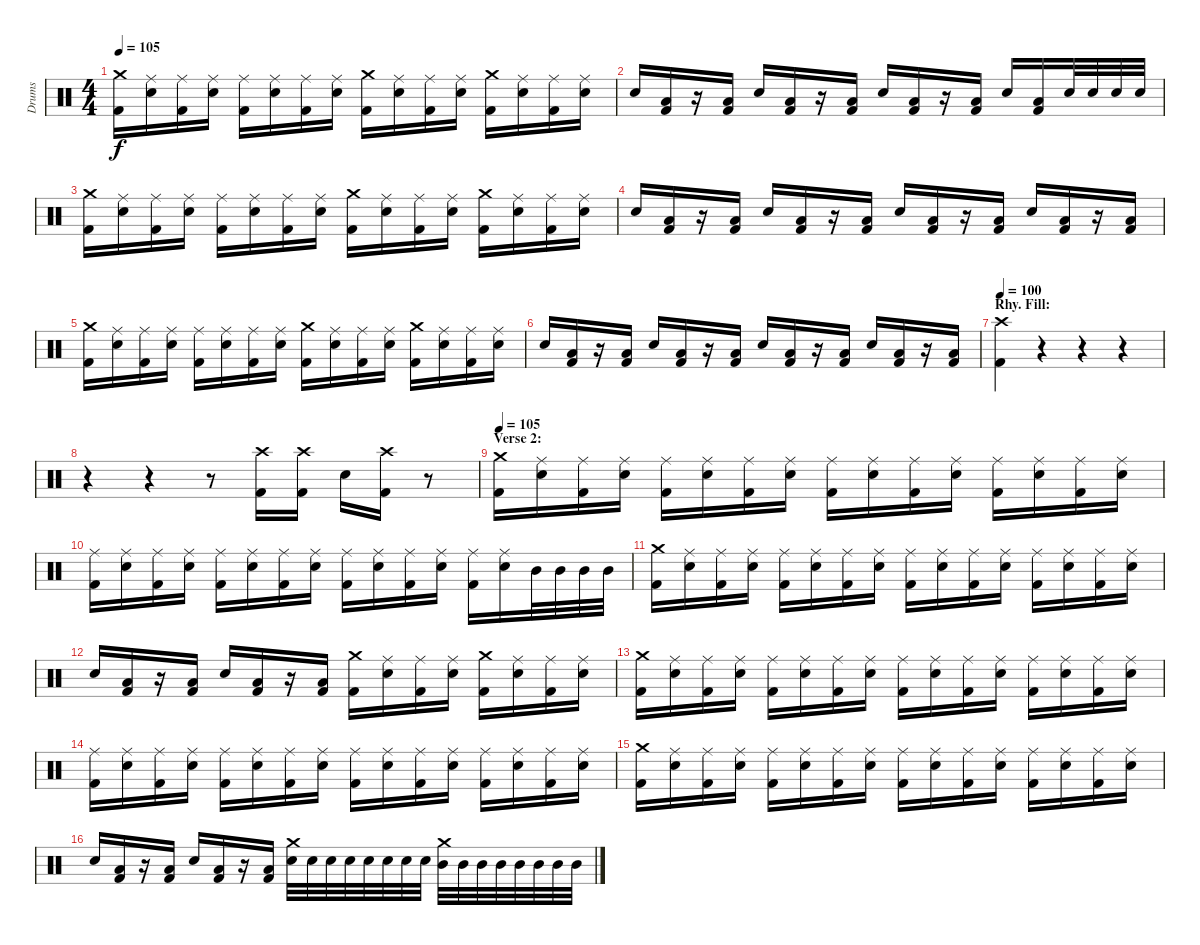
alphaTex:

\track ("Drums" "Drums") {instrument percussion}
\staff {score}
\articulation defaults
\ts (4 4)
\tempo 105
\clef neutral
\ks c
("Crash medium (hit)" "Kick (hit) 2").16{dy f} ("Ride (middle)" "Electric Snare (hit)").16 ("Ride (middle)" "Kick (hit) 2").16 ("Ride (middle)" "Electric Snare (hit)").16 ("Ride (middle)" "Kick (hit) 2").16 ("Ride (middle)" "Electric Snare (hit)").16 ("Ride (middle)" "Kick (hit) 2").16 ("Ride (middle)" "Electric Snare (hit)").16 ("Crash medium (hit)" "Kick (hit) 2").16 ("Ride (middle)" "Electric Snare (hit)").16 ("Ride (middle)" "Kick (hit) 2").16 ("Ride (middle)" "Electric Snare (hit)").16 ("Crash medium (hit)" "Kick (hit) 2").16 ("Ride (middle)" "Electric Snare (hit)").16 ("Ride (middle)" "Kick (hit) 2").16 ("Ride (middle)" "Electric Snare (hit)").16 |
"Electric Snare (hit)".16 ("Low Floor Tom (hit)" "Kick (hit) 2").16 r.16 ("Low Floor Tom (hit)" "Kick (hit) 2").16 "Electric Snare (hit)".16 ("Low Floor Tom (hit)" "Kick (hit) 2").16 r.16 ("Low Floor Tom (hit)" "Kick (hit) 2").16 "Electric Snare (hit)".16 ("Low Floor Tom (hit)" "Kick (hit) 2").16 r.16 ("Low Floor Tom (hit)" "Kick (hit) 2").16 "Electric Snare (hit)".16 ("Low Floor Tom (hit)" "Kick (hit) 2").16 "Electric Snare (hit)".32 "Electric Snare (hit)".32 "Electric Snare (hit)".32 "Electric Snare (hit)".32 |
("Crash medium (hit)" "Kick (hit) 2").16 ("Ride (middle)" "Electric Snare (hit)").16 ("Ride (middle)" "Kick (hit) 2").16 ("Ride (middle)" "Electric Snare (hit)").16 ("Ride (middle)" "Kick (hit) 2").16 ("Ride (middle)" "Electric Snare (hit)").16 ("Ride (middle)" "Kick (hit) 2").16 ("Ride (middle)" "Electric Snare (hit)").16 ("Crash medium (hit)" "Kick (hit) 2").16 ("Ride (middle)" "Electric Snare (hit)").16 ("Ride (middle)" "Kick (hit) 2").16 ("Ride (middle)" "Electric Snare (hit)").16 ("Crash medium (hit)" "Kick (hit) 2").16 ("Ride (middle)" "Electric Snare (hit)").16 ("Ride (middle)" "Kick (hit) 2").16 ("Ride (middle)" "Electric Snare (hit)").16 |
"Electric Snare (hit)".16 ("Low Floor Tom (hit)" "Kick (hit) 2").16 r.16 ("Low Floor Tom (hit)" "Kick (hit) 2").16 "Electric Snare (hit)".16 ("Low Floor Tom (hit)" "Kick (hit) 2").16 r.16 ("Low Floor Tom (hit)" "Kick (hit) 2").16 "Electric Snare (hit)".16 ("Low Floor Tom (hit)" "Kick (hit) 2").16 r.16 ("Low Floor Tom (hit)" "Kick (hit) 2").16 "Electric Snare (hit)".16 ("Low Floor Tom (hit)" "Kick (hit) 2").16 r.16 ("Low Floor Tom (hit)" "Kick (hit) 2").16 |
("Crash medium (hit)" "Kick (hit) 2").16 ("Ride (middle)" "Electric Snare (hit)").16 ("Ride (middle)" "Kick (hit) 2").16 ("Ride (middle)" "Electric Snare (hit)").16 ("Ride (middle)" "Kick (hit) 2").16 ("Ride (middle)" "Electric Snare (hit)").16 ("Ride (middle)" "Kick (hit) 2").16 ("Ride (middle)" "Electric Snare (hit)").16 ("Crash medium (hit)" "Kick (hit) 2").16 ("Ride (middle)" "Electric Snare (hit)").16 ("Ride (middle)" "Kick (hit) 2").16 ("Ride (middle)" "Electric Snare (hit)").16 ("Crash medium (hit)" "Kick (hit) 2").16 ("Ride (middle)" "Electric Snare (hit)").16 ("Ride (middle)" "Kick (hit) 2").16 ("Ride (middle)" "Electric Snare (hit)").16 |
"Electric Snare (hit)".16 ("Low Floor Tom (hit)" "Kick (hit) 2").16 r.16 ("Low Floor Tom (hit)" "Kick (hit) 2").16 "Electric Snare (hit)".16 ("Low Floor Tom (hit)" "Kick (hit) 2").16 r.16 ("Low Floor Tom (hit)" "Kick (hit) 2").16 "Electric Snare (hit)".16 ("Low Floor Tom (hit)" "Kick (hit) 2").16 r.16 ("Low Floor Tom (hit)" "Kick (hit) 2").16 "Electric Snare (hit)".16 ("Low Floor Tom (hit)" "Kick (hit) 2").16 r.16 ("Low Floor Tom (hit)" "Kick (hit) 2").16 |
\section ("" "Rhy. Fill:")
\tempo 100
("Crash high (hit)" "Kick (hit) 2").4 r.4 r.4 r.4 |
r.4 r.4 r.8 ("Crash high (hit)" "Kick (hit) 2").16 ("Crash high (hit)" "Kick (hit) 2").16 "Electric Snare (hit)".16 ("Crash high (hit)" "Kick (hit) 2").16 r.8 |
\section ("" "Verse 2:")
\tempo 105
("Crash medium (hit)" "Kick (hit) 2").16 ("Ride (middle)" "Electric Snare (hit)").16 ("Ride (middle)" "Kick (hit) 2").16 ("Ride (middle)" "Electric Snare (hit)").16 ("Ride (middle)" "Kick (hit) 2").16 ("Ride (middle)" "Electric Snare (hit)").16 ("Ride (middle)" "Kick (hit) 2").16 ("Ride (middle)" "Electric Snare (hit)").16 ("Ride (middle)" "Kick (hit) 2").16 ("Ride (middle)" "Electric Snare (hit)").16 ("Ride (middle)" "Kick (hit) 2").16 ("Ride (middle)" "Electric Snare (hit)").16 ("Ride (middle)" "Kick (hit) 2").16 ("Ride (middle)" "Electric Snare (hit)").16 ("Ride (middle)" "Kick (hit) 2").16 ("Ride (middle)" "Electric Snare (hit)").16 |
("Ride (middle)" "Kick (hit) 2").16 ("Ride (middle)" "Electric Snare (hit)").16 ("Ride (middle)" "Kick (hit) 2").16 ("Ride (middle)" "Electric Snare (hit)").16 ("Ride (middle)" "Kick (hit) 2").16 ("Ride (middle)" "Electric Snare (hit)").16 ("Ride (middle)" "Kick (hit) 2").16 ("Ride (middle)" "Electric Snare (hit)").16 ("Ride (middle)" "Kick (hit) 2").16 ("Ride (middle)" "Electric Snare (hit)").16 ("Ride (middle)" "Kick (hit) 2").16 ("Ride (middle)" "Electric Snare (hit)").16 ("Ride (middle)" "Kick (hit) 2").16 ("Ride (middle)" "Electric Snare (hit)").16 "Mid Tom (hit)".32 "Mid Tom (hit)".32 "Mid Tom (hit)".32 "Mid Tom (hit)".32 |
("Crash medium (hit)" "Kick (hit) 2").16 ("Ride (middle)" "Electric Snare (hit)").16 ("Ride (middle)" "Kick (hit) 2").16 ("Ride (middle)" "Electric Snare (hit)").16 ("Ride (middle)" "Kick (hit) 2").16 ("Ride (middle)" "Electric Snare (hit)").16 ("Ride (middle)" "Kick (hit) 2").16 ("Ride (middle)" "Electric Snare (hit)").16 ("Ride (middle)" "Kick (hit) 2").16 ("Ride (middle)" "Electric Snare (hit)").16 ("Ride (middle)" "Kick (hit) 2").16 ("Ride (middle)" "Electric Snare (hit)").16 ("Ride (middle)" "Kick (hit) 2").16 ("Ride (middle)" "Electric Snare (hit)").16 ("Ride (middle)" "Kick (hit) 2").16 ("Ride (middle)" "Electric Snare (hit)").16 |
"Electric Snare (hit)".16 ("Low Floor Tom (hit)" "Kick (hit) 2").16 r.16 ("Low Floor Tom (hit)" "Kick (hit) 2").16 "Electric Snare (hit)".16 ("Low Floor Tom (hit)" "Kick (hit) 2").16 r.16 ("Low Floor Tom (hit)" "Kick (hit) 2").16 ("Crash medium (hit)" "Kick (hit) 2").16 ("Ride (middle)" "Electric Snare (hit)").16 ("Ride (middle)" "Kick (hit) 2").16 ("Ride (middle)" "Electric Snare (hit)").16 ("Crash medium (hit)" "Kick (hit) 2").16 ("Ride (middle)" "Electric Snare (hit)").16 ("Ride (middle)" "Kick (hit) 2").16 ("Ride (middle)" "Electric Snare (hit)").16 |
("Crash medium (hit)" "Kick (hit) 2").16 ("Ride (middle)" "Electric Snare (hit)").16 ("Ride (middle)" "Kick (hit) 2").16 ("Ride (middle)" "Electric Snare (hit)").16 ("Ride (middle)" "Kick (hit) 2").16 ("Ride (middle)" "Electric Snare (hit)").16 ("Ride (middle)" "Kick (hit) 2").16 ("Ride (middle)" "Electric Snare (hit)").16 ("Ride (middle)" "Kick (hit) 2").16 ("Ride (middle)" "Electric Snare (hit)").16 ("Ride (middle)" "Kick (hit) 2").16 ("Ride (middle)" "Electric Snare (hit)").16 ("Ride (middle)" "Kick (hit) 2").16 ("Ride (middle)" "Electric Snare (hit)").16 ("Ride (middle)" "Kick (hit) 2").16 ("Ride (middle)" "Electric Snare (hit)").16 |
("Ride (middle)" "Kick (hit) 2").16 ("Ride (middle)" "Electric Snare (hit)").16 ("Ride (middle)" "Kick (hit) 2").16 ("Ride (middle)" "Electric Snare (hit)").16 ("Ride (middle)" "Kick (hit) 2").16 ("Ride (middle)" "Electric Snare (hit)").16 ("Ride (middle)" "Kick (hit) 2").16 ("Ride (middle)" "Electric Snare (hit)").16 ("Ride (middle)" "Kick (hit) 2").16 ("Ride (middle)" "Electric Snare (hit)").16 ("Ride (middle)" "Kick (hit) 2").16 ("Ride (middle)" "Electric Snare (hit)").16 ("Ride (middle)" "Kick (hit) 2").16 ("Ride (middle)" "Electric Snare (hit)").16 ("Ride (middle)" "Kick (hit) 2").16 ("Ride (middle)" "Electric Snare (hit)").16 |
("Crash medium (hit)" "Kick (hit) 2").16 ("Ride (middle)" "Electric Snare (hit)").16 ("Ride (middle)" "Kick (hit) 2").16 ("Ride (middle)" "Electric Snare (hit)").16 ("Ride (middle)" "Kick (hit) 2").16 ("Ride (middle)" "Electric Snare (hit)").16 ("Ride (middle)" "Kick (hit) 2").16 ("Ride (middle)" "Electric Snare (hit)").16 ("Ride (middle)" "Kick (hit) 2").16 ("Ride (middle)" "Electric Snare (hit)").16 ("Ride (middle)" "Kick (hit) 2").16 ("Ride (middle)" "Electric Snare (hit)").16 ("Ride (middle)" "Kick (hit) 2").16 ("Ride (middle)" "Electric Snare (hit)").16 ("Ride (middle)" "Kick (hit) 2").16 ("Ride (middle)" "Electric Snare (hit)").16 |
"Electric Snare (hit)".16 ("Low Floor Tom (hit)" "Kick (hit) 2").16 r.16 ("Low Floor Tom (hit)" "Kick (hit) 2").16 "Electric Snare (hit)".16 ("Low Floor Tom (hit)" "Kick (hit) 2").16 r.16 ("Low Floor Tom (hit)" "Kick (hit) 2").16 ("Crash medium (hit)" "Electric Snare (hit)").32 "Electric Snare (hit)".32 "Electric Snare (hit)".32 "Electric Snare (hit)".32 "Electric Snare (hit)".32 "Electric Snare (hit)".32 "Electric Snare (hit)".32 "Electric Snare (hit)".32 ("Crash medium (hit)" "Mid Tom (hit)").32 "Mid Tom (hit)".32 "Mid Tom (hit)".32 "Mid Tom (hit)".32 "Mid Tom (hit)".32 "Mid Tom (hit)".32 "Mid Tom (hit)".32 "Mid Tom (hit)".32
